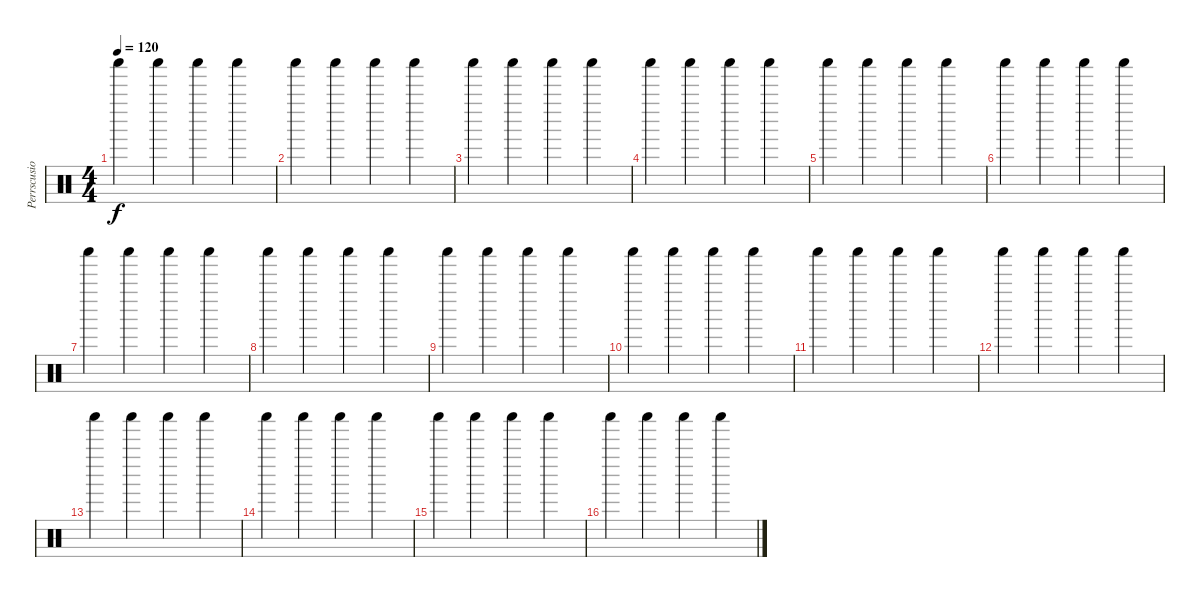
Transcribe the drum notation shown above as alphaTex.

\track ("Perrscusion" "Perrscusio") {instrument percussion}
\staff {score}
\articulation defaults
\ts (4 4)
\tempo 120
\clef neutral
\ks c "Shaker (hit)".4{dy f} "Shaker (hit)".4 "Shaker (hit)".4 "Shaker (hit)".4
|
"Shaker (hit)".4 "Shaker (hit)".4 "Shaker (hit)".4 "Shaker (hit)".4 |
"Shaker (hit)".4 "Shaker (hit)".4 "Shaker (hit)".4 "Shaker (hit)".4 |
"Shaker (hit)".4 "Shaker (hit)".4 "Shaker (hit)".4 "Shaker (hit)".4 |
"Shaker (hit)".4 "Shaker (hit)".4 "Shaker (hit)".4 "Shaker (hit)".4 |
"Shaker (hit)".4 "Shaker (hit)".4 "Shaker (hit)".4 "Shaker (hit)".4 |
"Shaker (hit)".4 "Shaker (hit)".4 "Shaker (hit)".4 "Shaker (hit)".4 |
"Shaker (hit)".4 "Shaker (hit)".4 "Shaker (hit)".4 "Shaker (hit)".4 |
"Shaker (hit)".4 "Shaker (hit)".4 "Shaker (hit)".4 "Shaker (hit)".4 |
"Shaker (hit)".4 "Shaker (hit)".4 "Shaker (hit)".4 "Shaker (hit)".4 |
"Shaker (hit)".4 "Shaker (hit)".4 "Shaker (hit)".4 "Shaker (hit)".4 |
"Shaker (hit)".4 "Shaker (hit)".4 "Shaker (hit)".4 "Shaker (hit)".4 |
"Shaker (hit)".4 "Shaker (hit)".4 "Shaker (hit)".4 "Shaker (hit)".4 |
"Shaker (hit)".4 "Shaker (hit)".4 "Shaker (hit)".4 "Shaker (hit)".4 |
"Shaker (hit)".4 "Shaker (hit)".4 "Shaker (hit)".4 "Shaker (hit)".4 |
"Shaker (hit)".4 "Shaker (hit)".4 "Shaker (hit)".4 "Shaker (hit)".4
